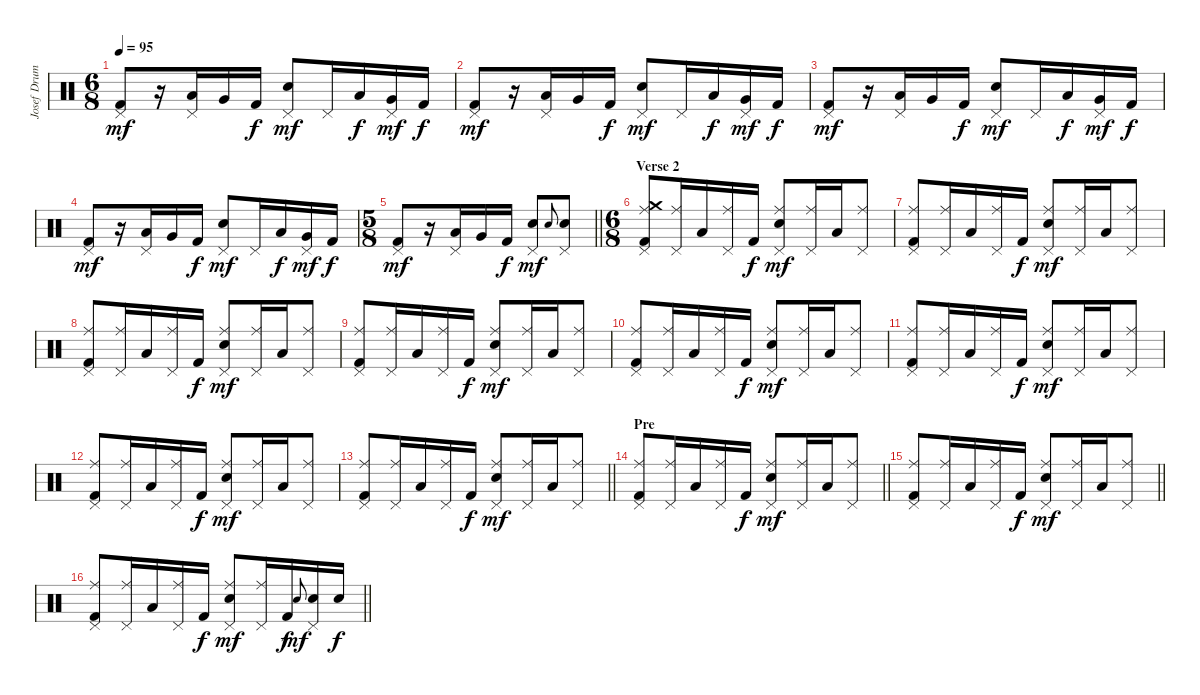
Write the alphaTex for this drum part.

\track ("Josef Drums" "Josef Drum") {instrument percussion}
\staff {score}
\articulation defaults
\ts (6 8)
\tempo 95
\clef neutral
\ks c
("Kick (hit) 2" "Pedal Hi-Hat (hit)").8{dy mf} r.16 ("Low Tom (hit)" "Pedal Hi-Hat (hit)").16 "Very Low Tom (hit)".16 "Kick (hit) 2".16{dy f} ("Electric Snare (hit)" "Pedal Hi-Hat (hit)").8{dy mf} "Pedal Hi-Hat (hit)".16 "Low Tom (hit)".16{dy f} ("Very Low Tom (hit)" "Pedal Hi-Hat (hit)").16{dy mf} "Kick (hit) 2".16{dy f} |
("Kick (hit) 2" "Pedal Hi-Hat (hit)").8{dy mf} r.16 ("Low Tom (hit)" "Pedal Hi-Hat (hit)").16 "Very Low Tom (hit)".16 "Kick (hit) 2".16{dy f} ("Electric Snare (hit)" "Pedal Hi-Hat (hit)").8{dy mf} "Pedal Hi-Hat (hit)".16 "Low Tom (hit)".16{dy f} ("Very Low Tom (hit)" "Pedal Hi-Hat (hit)").16{dy mf} "Kick (hit) 2".16{dy f} |
("Kick (hit) 2" "Pedal Hi-Hat (hit)").8{dy mf} r.16 ("Low Tom (hit)" "Pedal Hi-Hat (hit)").16 "Very Low Tom (hit)".16 "Kick (hit) 2".16{dy f} ("Electric Snare (hit)" "Pedal Hi-Hat (hit)").8{dy mf} "Pedal Hi-Hat (hit)".16 "Low Tom (hit)".16{dy f} ("Very Low Tom (hit)" "Pedal Hi-Hat (hit)").16{dy mf} "Kick (hit) 2".16{dy f} |
("Kick (hit) 2" "Pedal Hi-Hat (hit)").8{dy mf} r.16 ("Low Tom (hit)" "Pedal Hi-Hat (hit)").16 "Very Low Tom (hit)".16 "Kick (hit) 2".16{dy f} ("Electric Snare (hit)" "Pedal Hi-Hat (hit)").8{dy mf} "Pedal Hi-Hat (hit)".16 "Low Tom (hit)".16{dy f} ("Very Low Tom (hit)" "Pedal Hi-Hat (hit)").16{dy mf} "Kick (hit) 2".16{dy f} |
\ts (5 8)
\barLineRight lightlight
("Kick (hit) 2" "Pedal Hi-Hat (hit)").8{dy mf} r.16 ("Low Tom (hit)" "Pedal Hi-Hat (hit)").16 "Very Low Tom (hit)".16 "Kick (hit) 2".16{dy f} ("Electric Snare (hit)" "Pedal Hi-Hat (hit)").8{dy mf} "Electric Snare (hit)".8{gr onbeat} ("Electric Snare (hit)" "Pedal Hi-Hat (hit)").8 |
\ts (6 8)
\section ("" "Verse 2")
("Crash medium (hit)" "Ride (middle)" "Kick (hit) 2" "Pedal Hi-Hat (hit)").8 ("Ride (middle)" "Pedal Hi-Hat (hit)").16 "Low Tom (hit)".16 ("Ride (middle)" "Pedal Hi-Hat (hit)").16 "Kick (hit) 2".16{dy f} ("Ride (middle)" "Electric Snare (hit)" "Pedal Hi-Hat (hit)").8{dy mf} ("Ride (middle)" "Pedal Hi-Hat (hit)").16 "Low Tom (hit)".16 ("Ride (middle)" "Pedal Hi-Hat (hit)").8 |
("Ride (middle)" "Kick (hit) 2" "Pedal Hi-Hat (hit)").8 ("Ride (middle)" "Pedal Hi-Hat (hit)").16 "Low Tom (hit)".16 ("Ride (middle)" "Pedal Hi-Hat (hit)").16 "Kick (hit) 2".16{dy f} ("Ride (middle)" "Electric Snare (hit)" "Pedal Hi-Hat (hit)").8{dy mf} ("Ride (middle)" "Pedal Hi-Hat (hit)").16 "Low Tom (hit)".16 ("Ride (middle)" "Pedal Hi-Hat (hit)").8 |
("Ride (middle)" "Kick (hit) 2" "Pedal Hi-Hat (hit)").8 ("Ride (middle)" "Pedal Hi-Hat (hit)").16 "Low Tom (hit)".16 ("Ride (middle)" "Pedal Hi-Hat (hit)").16 "Kick (hit) 2".16{dy f} ("Ride (middle)" "Electric Snare (hit)" "Pedal Hi-Hat (hit)").8{dy mf} ("Ride (middle)" "Pedal Hi-Hat (hit)").16 "Low Tom (hit)".16 ("Ride (middle)" "Pedal Hi-Hat (hit)").8 |
("Ride (middle)" "Kick (hit) 2" "Pedal Hi-Hat (hit)").8 ("Ride (middle)" "Pedal Hi-Hat (hit)").16 "Low Tom (hit)".16 ("Ride (middle)" "Pedal Hi-Hat (hit)").16 "Kick (hit) 2".16{dy f} ("Ride (middle)" "Electric Snare (hit)" "Pedal Hi-Hat (hit)").8{dy mf} ("Ride (middle)" "Pedal Hi-Hat (hit)").16 "Low Tom (hit)".16 ("Ride (middle)" "Pedal Hi-Hat (hit)").8 |
("Ride (middle)" "Kick (hit) 2" "Pedal Hi-Hat (hit)").8 ("Ride (middle)" "Pedal Hi-Hat (hit)").16 "Low Tom (hit)".16 ("Ride (middle)" "Pedal Hi-Hat (hit)").16 "Kick (hit) 2".16{dy f} ("Ride (middle)" "Electric Snare (hit)" "Pedal Hi-Hat (hit)").8{dy mf} ("Ride (middle)" "Pedal Hi-Hat (hit)").16 "Low Tom (hit)".16 ("Ride (middle)" "Pedal Hi-Hat (hit)").8 |
("Ride (middle)" "Kick (hit) 2" "Pedal Hi-Hat (hit)").8 ("Ride (middle)" "Pedal Hi-Hat (hit)").16 "Low Tom (hit)".16 ("Ride (middle)" "Pedal Hi-Hat (hit)").16 "Kick (hit) 2".16{dy f} ("Ride (middle)" "Electric Snare (hit)" "Pedal Hi-Hat (hit)").8{dy mf} ("Ride (middle)" "Pedal Hi-Hat (hit)").16 "Low Tom (hit)".16 ("Ride (middle)" "Pedal Hi-Hat (hit)").8 |
("Ride (middle)" "Kick (hit) 2" "Pedal Hi-Hat (hit)").8 ("Ride (middle)" "Pedal Hi-Hat (hit)").16 "Low Tom (hit)".16 ("Ride (middle)" "Pedal Hi-Hat (hit)").16 "Kick (hit) 2".16{dy f} ("Ride (middle)" "Electric Snare (hit)" "Pedal Hi-Hat (hit)").8{dy mf} ("Ride (middle)" "Pedal Hi-Hat (hit)").16 "Low Tom (hit)".16 ("Ride (middle)" "Pedal Hi-Hat (hit)").8 |
\barLineRight lightlight
("Ride (middle)" "Kick (hit) 2" "Pedal Hi-Hat (hit)").8 ("Ride (middle)" "Pedal Hi-Hat (hit)").16 "Low Tom (hit)".16 ("Ride (middle)" "Pedal Hi-Hat (hit)").16 "Kick (hit) 2".16{dy f} ("Ride (middle)" "Electric Snare (hit)" "Pedal Hi-Hat (hit)").8{dy mf} ("Ride (middle)" "Pedal Hi-Hat (hit)").16 "Low Tom (hit)".16 ("Ride (middle)" "Pedal Hi-Hat (hit)").8 |
\section ("" "Pre")
\barLineRight lightlight
("Ride (middle)" "Kick (hit) 2" "Pedal Hi-Hat (hit)").8 ("Ride (middle)" "Pedal Hi-Hat (hit)").16 "Low Tom (hit)".16 ("Ride (middle)" "Pedal Hi-Hat (hit)").16 "Kick (hit) 2".16{dy f} ("Ride (middle)" "Electric Snare (hit)" "Pedal Hi-Hat (hit)").8{dy mf} ("Ride (middle)" "Pedal Hi-Hat (hit)").16 "Low Tom (hit)".16 ("Ride (middle)" "Pedal Hi-Hat (hit)").8 |
\barLineRight lightlight
("Ride (middle)" "Kick (hit) 2" "Pedal Hi-Hat (hit)").8 ("Ride (middle)" "Pedal Hi-Hat (hit)").16 "Low Tom (hit)".16 ("Ride (middle)" "Pedal Hi-Hat (hit)").16 "Kick (hit) 2".16{dy f} ("Ride (middle)" "Electric Snare (hit)" "Pedal Hi-Hat (hit)").8{dy mf} ("Ride (middle)" "Pedal Hi-Hat (hit)").16 "Low Tom (hit)".16 ("Ride (middle)" "Pedal Hi-Hat (hit)").8 |
\barLineRight lightlight
("Ride (middle)" "Kick (hit) 2" "Pedal Hi-Hat (hit)").8 ("Ride (middle)" "Pedal Hi-Hat (hit)").16 "Low Tom (hit)".16 ("Ride (middle)" "Pedal Hi-Hat (hit)").16 "Kick (hit) 2".16{dy f} ("Ride (middle)" "Electric Snare (hit)" "Pedal Hi-Hat (hit)").8{dy mf} ("Ride (middle)" "Pedal Hi-Hat (hit)").16 "Kick (hit) 2".16{dy f} "Electric Snare (hit)".8{gr onbeat dy mf} ("Electric Snare (hit)" "Pedal Hi-Hat (hit)").16 "Electric Snare (hit)".16{dy f}
